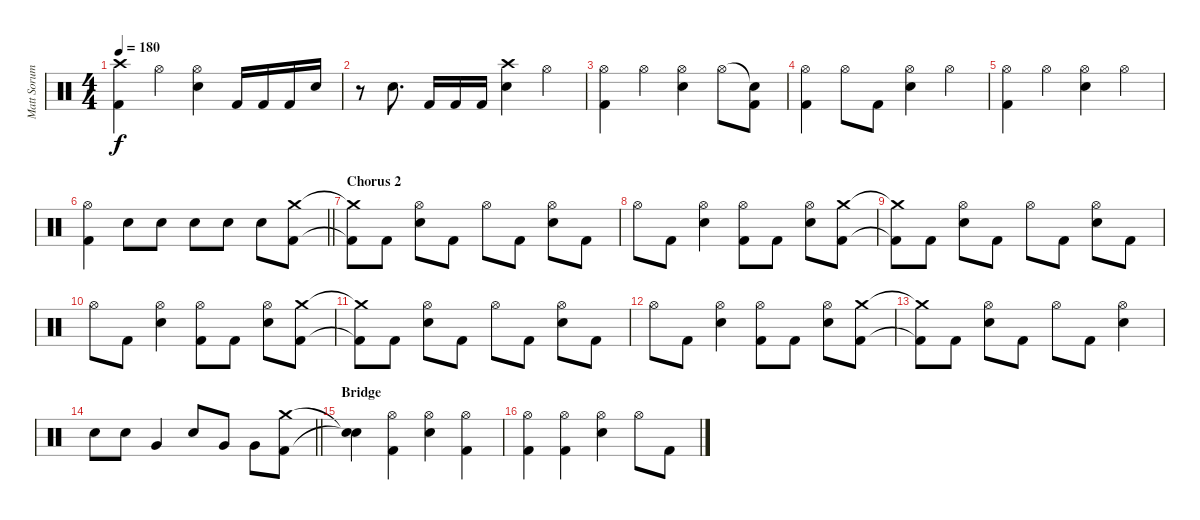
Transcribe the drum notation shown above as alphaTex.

\track ("Matt Sorum" "Matt Sorum") {instrument percussion}
\staff {score}
\articulation defaults
\ts (4 4)
\tempo 180
\clef neutral
\ks c
("Crash high (hit)" "Kick (hit) 2").4{dy f} "Hi-Hat (open)".4 ("Hi-Hat (open)" "Electric Snare (hit)").4 "Kick (hit) 2".16 "Kick (hit) 2".16 "Kick (hit) 2".16 "Electric Snare (hit)".16 |
r.8 "Electric Snare (hit)".8{d} "Kick (hit) 2".16 "Kick (hit) 2".16 "Kick (hit) 2".16 ("Crash high (hit)" "Electric Snare (hit)").4 "Hi-Hat (open)".4 |
("Hi-Hat (open)" "Kick (hit) 2").4 "Hi-Hat (open)".4 ("Hi-Hat (open)" "Electric Snare (hit)").4 "Hi-Hat (open)".8 ("Snare (hit)"{t} "Kick (hit) 2").8 |
("Hi-Hat (open)" "Kick (hit) 2").4 "Hi-Hat (open)".8 "Kick (hit) 2".8 ("Hi-Hat (open)" "Electric Snare (hit)").4 "Hi-Hat (open)".4 |
("Hi-Hat (open)" "Kick (hit) 2").4 "Hi-Hat (open)".4 ("Hi-Hat (open)" "Electric Snare (hit)").4 "Hi-Hat (open)".4 |
\barLineRight lightlight
("Hi-Hat (open)" "Kick (hit) 2").4 "Electric Snare (hit)".8 "Electric Snare (hit)".8 "Electric Snare (hit)".8 "Electric Snare (hit)".8 "Electric Snare (hit)".8 ("Crash medium (hit)" "Kick (hit) 2").8 |
\section ("" "Chorus 2")
("Crash medium (hit)"{t} "Kick (hit) 2"{t}).8 "Kick (hit) 2".8 ("Hi-Hat (open)" "Electric Snare (hit)").8 "Kick (hit) 2".8 "Hi-Hat (open)".8 "Kick (hit) 2".8 ("Hi-Hat (open)" "Electric Snare (hit)").8 "Kick (hit) 2".8 |
"Hi-Hat (open)".8 "Kick (hit) 2".8 ("Hi-Hat (open)" "Electric Snare (hit)").4 ("Hi-Hat (open)" "Kick (hit) 2").8 "Kick (hit) 2".8 ("Hi-Hat (open)" "Electric Snare (hit)").8 ("Crash medium (hit)" "Kick (hit) 2").8 |
("Crash medium (hit)"{t} "Kick (hit) 2"{t}).8 "Kick (hit) 2".8 ("Hi-Hat (open)" "Electric Snare (hit)").8 "Kick (hit) 2".8 "Hi-Hat (open)".8 "Kick (hit) 2".8 ("Hi-Hat (open)" "Electric Snare (hit)").8 "Kick (hit) 2".8 |
"Hi-Hat (open)".8 "Kick (hit) 2".8 ("Hi-Hat (open)" "Electric Snare (hit)").4 ("Hi-Hat (open)" "Kick (hit) 2").8 "Kick (hit) 2".8 ("Hi-Hat (open)" "Electric Snare (hit)").8 ("Crash medium (hit)" "Kick (hit) 2").8 |
("Crash medium (hit)"{t} "Kick (hit) 2"{t}).8 "Kick (hit) 2".8 ("Hi-Hat (open)" "Electric Snare (hit)").8 "Kick (hit) 2".8 "Hi-Hat (open)".8 "Kick (hit) 2".8 ("Hi-Hat (open)" "Electric Snare (hit)").8 "Kick (hit) 2".8 |
"Hi-Hat (open)".8 "Kick (hit) 2".8 ("Hi-Hat (open)" "Electric Snare (hit)").4 ("Hi-Hat (open)" "Kick (hit) 2").8 "Kick (hit) 2".8 ("Hi-Hat (open)" "Electric Snare (hit)").8 ("Crash medium (hit)" "Kick (hit) 2").8 |
("Crash medium (hit)"{t} "Kick (hit) 2"{t}).8 "Kick (hit) 2".8 ("Hi-Hat (open)" "Electric Snare (hit)").8 "Kick (hit) 2".8 "Hi-Hat (open)".8 "Kick (hit) 2".8 ("Hi-Hat (open)" "Electric Snare (hit)").4 |
\barLineRight lightlight "Electric Snare (hit)".8 "Electric Snare (hit)".8 "Very Low Tom (hit)".4 "Electric Snare (hit)".8 "Very Low Tom (hit)".8 "Very Low Tom (hit)".8
("Crash medium (hit)" "Kick (hit) 2").8 |
\section ("" "Bridge")
("Snare (hit)"{t} "Snare (hit)"{t}).4 ("Hi-Hat (open)" "Kick (hit) 2").4 ("Hi-Hat (open)" "Electric Snare (hit)").4 ("Hi-Hat (open)" "Kick (hit) 2").4 |
("Hi-Hat (open)" "Kick (hit) 2").4 ("Hi-Hat (open)" "Kick (hit) 2").4 ("Hi-Hat (open)" "Electric Snare (hit)").4 "Hi-Hat (open)".8 "Kick (hit) 2".8
